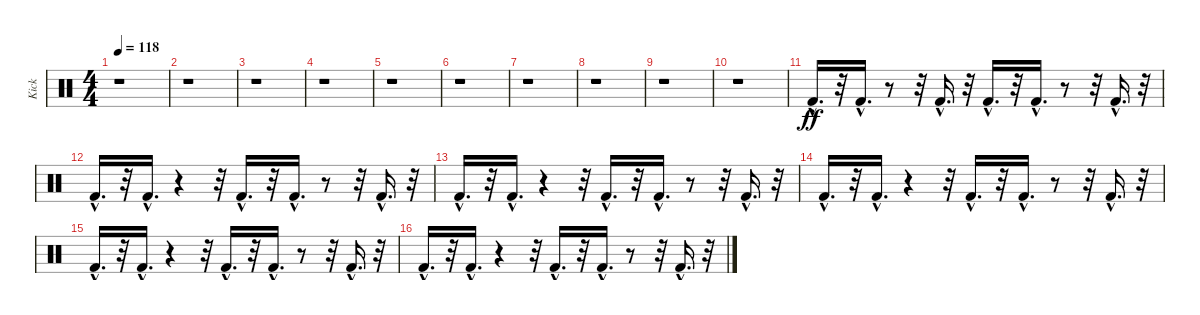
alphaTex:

\track ("Kick                " "Kick      ") {instrument percussion}
\staff {score}
\articulation defaults
\ts (4 4)
\tempo 118
\clef neutral
\ks c
r.1{dy ff} |
r.1 |
r.1 |
r.1 |
r.1 |
r.1 |
r.1 |
r.1 |
r.1 |
r.1 |
"Kick (hit) 2"{hac}.16{d} r.32 "Kick (hit) 2"{hac}.16{d} r.8 r.32 "Kick (hit) 2"{hac}.16{d} r.32 "Kick (hit) 2"{hac}.16{d} r.32 "Kick (hit) 2"{hac}.16{d} r.8 r.32 "Kick (hit) 2"{hac}.16{d} r.32 |
"Kick (hit) 2"{hac}.16{d} r.32 "Kick (hit) 2"{hac}.16{d} r.4 r.32 "Kick (hit) 2"{hac}.16{d} r.32 "Kick (hit) 2"{hac}.16{d} r.8 r.32 "Kick (hit) 2"{hac}.16{d} r.32 |
"Kick (hit) 2"{hac}.16{d} r.32 "Kick (hit) 2"{hac}.16{d} r.4 r.32 "Kick (hit) 2"{hac}.16{d} r.32 "Kick (hit) 2"{hac}.16{d} r.8 r.32 "Kick (hit) 2"{hac}.16{d} r.32 |
"Kick (hit) 2"{hac}.16{d} r.32 "Kick (hit) 2"{hac}.16{d} r.4 r.32 "Kick (hit) 2"{hac}.16{d} r.32 "Kick (hit) 2"{hac}.16{d} r.8 r.32 "Kick (hit) 2"{hac}.16{d} r.32 |
"Kick (hit) 2"{hac}.16{d} r.32 "Kick (hit) 2"{hac}.16{d} r.4 r.32 "Kick (hit) 2"{hac}.16{d} r.32 "Kick (hit) 2"{hac}.16{d} r.8 r.32 "Kick (hit) 2"{hac}.16{d} r.32 |
"Kick (hit) 2"{hac}.16{d} r.32 "Kick (hit) 2"{hac}.16{d} r.4 r.32 "Kick (hit) 2"{hac}.16{d} r.32 "Kick (hit) 2"{hac}.16{d} r.8 r.32 "Kick (hit) 2"{hac}.16{d} r.32
